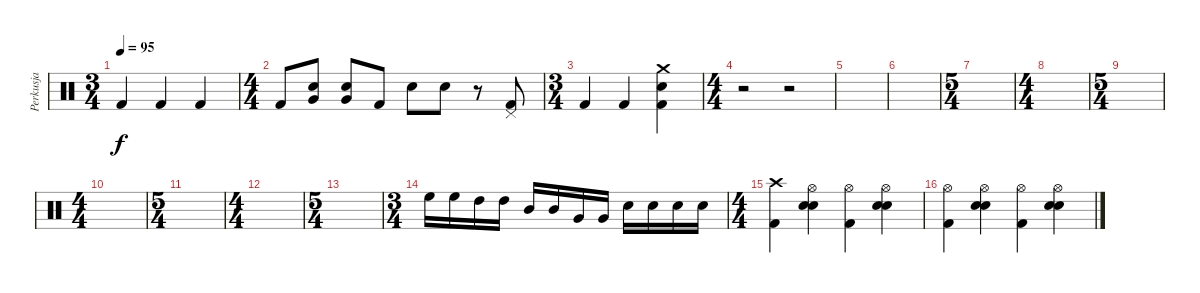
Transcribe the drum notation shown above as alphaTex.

\track ("Perkusja" "Perkusja") {instrument percussion}
\staff {score}
\articulation defaults
\ts (3 4)
\tempo 95
\clef neutral
\ks c "Kick (hit) 2".4{dy f} "Kick (hit) 2".4 "Kick (hit) 2".4
|
\ts (4 4)
"Kick (hit) 2".8 ("Very Low Tom (hit)" "Snare (hit) 2").8 ("Very Low Tom (hit)" "Snare (hit) 2").8 "Kick (hit) 2".8 "Electric Snare (hit)".8 "Electric Snare (hit)".8 r.8 ("Pedal Hi-Hat (hit)" "Kick (hit) 2").8 |
\ts (3 4)
"Kick (hit) 2".4 "Kick (hit) 2".4 ("Crash medium (hit)" "Snare (hit) 2" "Kick (hit) 2").4 |
\ts (4 4)
r.2 r.2 |
|
|
\ts (5 4)
|
\ts (4 4)
|
\ts (5 4)
|
\ts (4 4)
|
\ts (5 4)
|
\ts (4 4)
|
\ts (5 4)
|
\ts (3 4)
"High Floor Tom (hit)".16 "High Floor Tom (hit)".16 "High Tom (hit)".16 "High Tom (hit)".16 "Mid Tom (hit)".16 "Mid Tom (hit)".16 "Very Low Tom (hit)".16 "Very Low Tom (hit)".16 "Electric Snare (hit)".16 "Electric Snare (hit)".16 "Snare (hit) 2".16 "Snare (hit) 2".16 |
\ts (4 4)
("Crash high (hit)" "Kick (hit) 2").4 ("Hi-Hat (open)" "Electric Snare (hit)" "Snare (hit) 2").4 ("Hi-Hat (open)" "Kick (hit) 2").4 ("Hi-Hat (open)" "Electric Snare (hit)" "Snare (hit) 2").4 |
("Hi-Hat (open)" "Kick (hit) 2").4 ("Hi-Hat (open)" "Electric Snare (hit)" "Snare (hit) 2").4 ("Hi-Hat (open)" "Kick (hit) 2").4 ("Hi-Hat (open)" "Electric Snare (hit)" "Snare (hit) 2").4
